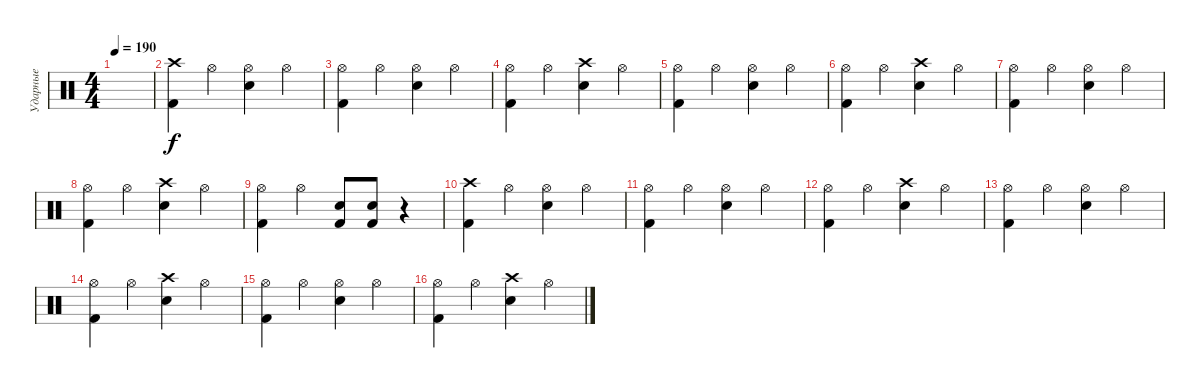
\track ("Ударные" "Ударные") {instrument percussion}
\staff {score}
\articulation defaults
\ts (4 4)
\tempo 190
\clef neutral
\ks c
|
("Crash high (hit)" "Kick (hit) 2").4 "Hi-Hat (open)".4 ("Hi-Hat (open)" "Electric Snare (hit)").4 "Hi-Hat (open)".4 |
("Hi-Hat (open)" "Kick (hit) 2").4 "Hi-Hat (open)".4 ("Hi-Hat (open)" "Electric Snare (hit)").4 "Hi-Hat (open)".4 |
("Hi-Hat (open)" "Kick (hit) 2").4 "Hi-Hat (open)".4 ("Crash high (hit)" "Electric Snare (hit)").4 "Hi-Hat (open)".4 |
("Hi-Hat (open)" "Kick (hit) 2").4 "Hi-Hat (open)".4 ("Hi-Hat (open)" "Electric Snare (hit)").4 "Hi-Hat (open)".4 |
("Hi-Hat (open)" "Kick (hit) 2").4 "Hi-Hat (open)".4 ("Crash high (hit)" "Electric Snare (hit)").4 "Hi-Hat (open)".4 |
("Hi-Hat (open)" "Kick (hit) 2").4 "Hi-Hat (open)".4 ("Hi-Hat (open)" "Electric Snare (hit)").4 "Hi-Hat (open)".4 |
("Hi-Hat (open)" "Kick (hit) 2").4 "Hi-Hat (open)".4 ("Crash high (hit)" "Electric Snare (hit)").4 "Hi-Hat (open)".4 |
("Hi-Hat (open)" "Kick (hit) 2").4 "Hi-Hat (open)".4 ("Electric Snare (hit)" "Kick (hit) 2").8 ("Electric Snare (hit)" "Kick (hit) 2").8 r.4 |
("Crash high (hit)" "Kick (hit) 2").4 "Hi-Hat (open)".4 ("Hi-Hat (open)" "Electric Snare (hit)").4 "Hi-Hat (open)".4 |
("Hi-Hat (open)" "Kick (hit) 2").4 "Hi-Hat (open)".4 ("Hi-Hat (open)" "Electric Snare (hit)").4 "Hi-Hat (open)".4 |
("Hi-Hat (open)" "Kick (hit) 2").4 "Hi-Hat (open)".4 ("Crash high (hit)" "Electric Snare (hit)").4 "Hi-Hat (open)".4 |
("Hi-Hat (open)" "Kick (hit) 2").4 "Hi-Hat (open)".4 ("Hi-Hat (open)" "Electric Snare (hit)").4 "Hi-Hat (open)".4 |
("Hi-Hat (open)" "Kick (hit) 2").4 "Hi-Hat (open)".4 ("Crash high (hit)" "Electric Snare (hit)").4 "Hi-Hat (open)".4 |
("Hi-Hat (open)" "Kick (hit) 2").4 "Hi-Hat (open)".4 ("Hi-Hat (open)" "Electric Snare (hit)").4 "Hi-Hat (open)".4 |
("Hi-Hat (open)" "Kick (hit) 2").4 "Hi-Hat (open)".4 ("Crash high (hit)" "Electric Snare (hit)").4 "Hi-Hat (open)".4
